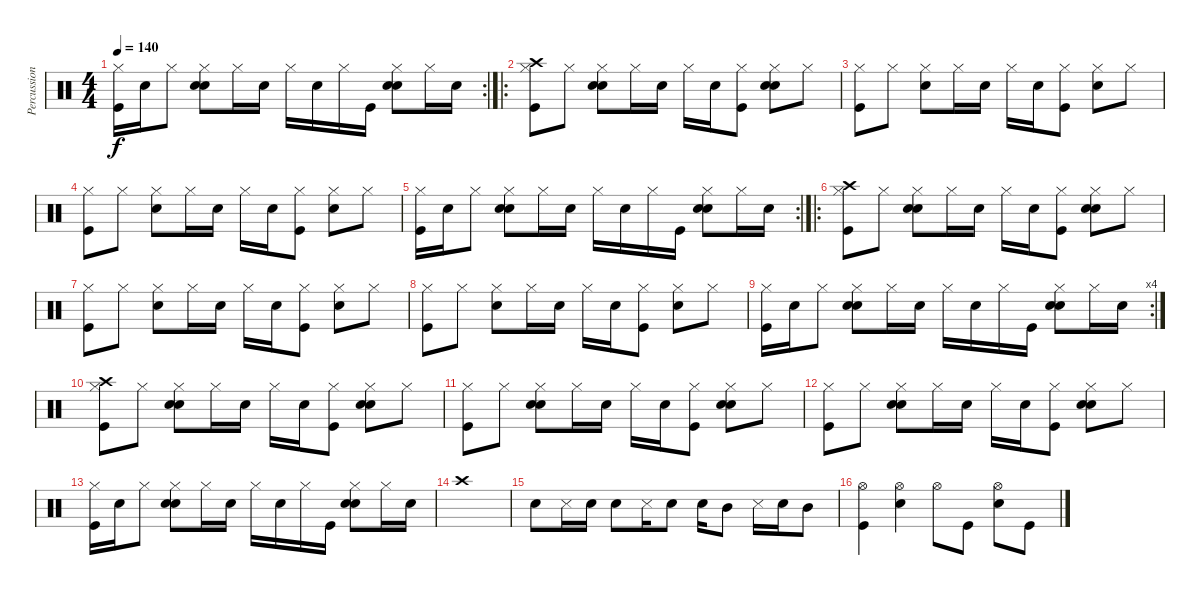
\track ("Percussion" "Percussion") {instrument percussion}
\staff {score}
\articulation defaults
\rc 2
\ts (4 4)
\tempo 140
\clef neutral
\ks c
("Hi-Hat (closed)" "Kick (hit)").16{dy f} "Snare (hit) 2".16 "Hi-Hat (closed)".8 ("Hi-Hat (closed)" "Hand Clap (hit)" "Snare (hit) 2").8 "Hi-Hat (closed)".16 "Snare (hit) 2".16 "Hi-Hat (closed)".16 "Snare (hit) 2".16 "Hi-Hat (closed)".16 "Kick (hit)".16 ("Hi-Hat (closed)" "Hand Clap (hit)" "Snare (hit) 2").8 "Hi-Hat (closed)".16 "Snare (hit) 2".16 |
\ro
("Hi-Hat (closed)" "Kick (hit)" "Crash high (hit)").8 "Hi-Hat (closed)".8 ("Hi-Hat (closed)" "Hand Clap (hit)" "Snare (hit) 2").8 "Hi-Hat (closed)".16 "Snare (hit) 2".16 "Hi-Hat (closed)".16 "Snare (hit) 2".16 ("Hi-Hat (closed)" "Kick (hit)").8 ("Hi-Hat (closed)" "Hand Clap (hit)" "Snare (hit) 2").8 "Hi-Hat (closed)".8 |
("Hi-Hat (closed)" "Kick (hit)").8 "Hi-Hat (closed)".8 ("Hi-Hat (closed)" "Snare (hit) 2").8 "Hi-Hat (closed)".16 "Snare (hit) 2".16 "Hi-Hat (closed)".16 "Snare (hit) 2".16 ("Hi-Hat (closed)" "Kick (hit)").8 ("Hi-Hat (closed)" "Snare (hit) 2").8 "Hi-Hat (closed)".8 |
("Hi-Hat (closed)" "Kick (hit)").8 "Hi-Hat (closed)".8 ("Hi-Hat (closed)" "Snare (hit) 2").8 "Hi-Hat (closed)".16 "Snare (hit) 2".16 "Hi-Hat (closed)".16 "Snare (hit) 2".16 ("Hi-Hat (closed)" "Kick (hit)").8 ("Hi-Hat (closed)" "Snare (hit) 2").8 "Hi-Hat (closed)".8 |
\rc 2
("Hi-Hat (closed)" "Kick (hit)").16 "Snare (hit) 2".16 "Hi-Hat (closed)".8 ("Hi-Hat (closed)" "Hand Clap (hit)" "Snare (hit) 2").8 "Hi-Hat (closed)".16 "Snare (hit) 2".16 "Hi-Hat (closed)".16 "Snare (hit) 2".16 "Hi-Hat (closed)".16 "Kick (hit)".16 ("Hi-Hat (closed)" "Hand Clap (hit)" "Snare (hit) 2").8 "Hi-Hat (closed)".16 "Snare (hit) 2".16 |
\ro
("Hi-Hat (closed)" "Kick (hit)" "Crash high (hit)").8 "Hi-Hat (closed)".8 ("Hi-Hat (closed)" "Hand Clap (hit)" "Snare (hit) 2").8 "Hi-Hat (closed)".16 "Snare (hit) 2".16 "Hi-Hat (closed)".16 "Snare (hit) 2".16 ("Hi-Hat (closed)" "Kick (hit)").8 ("Hi-Hat (closed)" "Hand Clap (hit)" "Snare (hit) 2").8 "Hi-Hat (closed)".8 |
("Hi-Hat (closed)" "Kick (hit)").8 "Hi-Hat (closed)".8 ("Hi-Hat (closed)" "Snare (hit) 2").8 "Hi-Hat (closed)".16 "Snare (hit) 2".16 "Hi-Hat (closed)".16 "Snare (hit) 2".16 ("Hi-Hat (closed)" "Kick (hit)").8 ("Hi-Hat (closed)" "Snare (hit) 2").8 "Hi-Hat (closed)".8 |
("Hi-Hat (closed)" "Kick (hit)").8 "Hi-Hat (closed)".8 ("Hi-Hat (closed)" "Snare (hit) 2").8 "Hi-Hat (closed)".16 "Snare (hit) 2".16 "Hi-Hat (closed)".16 "Snare (hit) 2".16 ("Hi-Hat (closed)" "Kick (hit)").8 ("Hi-Hat (closed)" "Snare (hit) 2").8 "Hi-Hat (closed)".8 |
\rc 4
("Hi-Hat (closed)" "Kick (hit)").16 "Snare (hit) 2".16 "Hi-Hat (closed)".8 ("Hi-Hat (closed)" "Hand Clap (hit)" "Snare (hit) 2").8 "Hi-Hat (closed)".16 "Snare (hit) 2".16 "Hi-Hat (closed)".16 "Snare (hit) 2".16 "Hi-Hat (closed)".16 "Kick (hit)".16 ("Hi-Hat (closed)" "Hand Clap (hit)" "Snare (hit) 2").8 "Hi-Hat (closed)".16 "Snare (hit) 2".16 |
("Hi-Hat (closed)" "Kick (hit)" "Crash high (hit)").8 "Hi-Hat (closed)".8 ("Hi-Hat (closed)" "Hand Clap (hit)" "Snare (hit) 2").8 "Hi-Hat (closed)".16 "Snare (hit) 2".16 "Hi-Hat (closed)".16 "Snare (hit) 2".16 ("Hi-Hat (closed)" "Kick (hit)").8 ("Hi-Hat (closed)" "Hand Clap (hit)" "Snare (hit) 2").8 "Hi-Hat (closed)".8 |
("Hi-Hat (closed)" "Kick (hit)").8 "Hi-Hat (closed)".8 ("Hi-Hat (closed)" "Hand Clap (hit)" "Snare (hit) 2").8 "Hi-Hat (closed)".16 "Snare (hit) 2".16 "Hi-Hat (closed)".16 "Snare (hit) 2".16 ("Hi-Hat (closed)" "Kick (hit)").8 ("Hi-Hat (closed)" "Hand Clap (hit)" "Snare (hit) 2").8 "Hi-Hat (closed)".8 |
("Hi-Hat (closed)" "Kick (hit)").8 "Hi-Hat (closed)".8 ("Hi-Hat (closed)" "Hand Clap (hit)" "Snare (hit) 2").8 "Hi-Hat (closed)".16 "Snare (hit) 2".16 "Hi-Hat (closed)".16 "Snare (hit) 2".16 ("Hi-Hat (closed)" "Kick (hit)").8 ("Hi-Hat (closed)" "Hand Clap (hit)" "Snare (hit) 2").8 "Hi-Hat (closed)".8 |
("Hi-Hat (closed)" "Kick (hit)").16 "Snare (hit) 2".16 "Hi-Hat (closed)".8 ("Hi-Hat (closed)" "Hand Clap (hit)" "Snare (hit) 2").8 "Hi-Hat (closed)".16 "Snare (hit) 2".16 "Hi-Hat (closed)".16 "Snare (hit) 2".16 "Hi-Hat (closed)".16 "Kick (hit)".16 ("Hi-Hat (closed)" "Hand Clap (hit)" "Snare (hit) 2").8 "Hi-Hat (closed)".16 "Snare (hit) 2".16 |
"Crash high (hit)".1 |
"Snare (hit) 2".8 "Snare (side stick) 3".16 "Snare (hit) 2".16 "Snare (hit) 2".8 "Snare (side stick) 3".16 "Snare (hit) 2".8 "Snare (hit) 2".16 "Mid Tom (hit)".8 "Snare (side stick) 3".16 "Snare (hit) 2".16 "Mid Tom (hit)".8 |
("Hi-Hat (open)" "Kick (hit)").4 ("Hi-Hat (open)" "Snare (hit) 2").4 "Hi-Hat (open)".8 "Kick (hit)".8 ("Hi-Hat (open)" "Snare (hit) 2").8 "Kick (hit)".8
